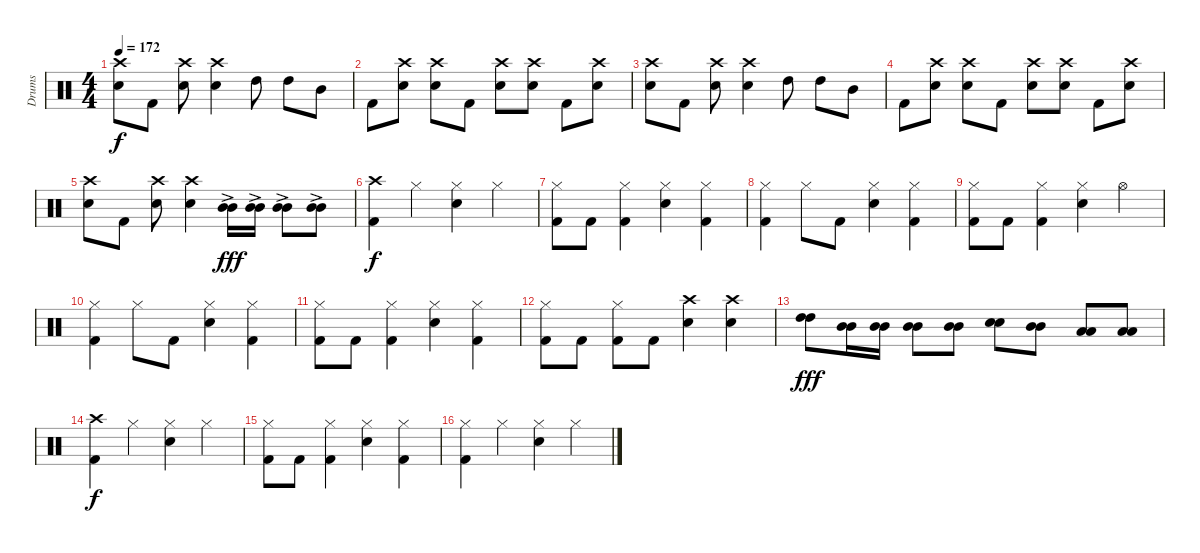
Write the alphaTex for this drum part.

\track ("Drums" "Drums") {instrument percussion}
\staff {score}
\articulation defaults
\ts (4 4)
\tempo 172
\clef neutral
\ks c
("Crash high (hit)" "Snare (hit) 2").8{dy f} "Kick (hit) 2".8 ("Crash high (hit)" "Snare (hit) 2").8 ("Crash high (hit)" "Snare (hit) 2").4 "High Tom (hit)".8 "High Tom (hit)".8 "Mid Tom (hit)".8 |
"Kick (hit) 2".8 ("Crash high (hit)" "Snare (hit) 2").8 ("Crash high (hit)" "Snare (hit) 2").8 "Kick (hit) 2".8 ("Crash high (hit)" "Snare (hit) 2").8 ("Crash high (hit)" "Snare (hit) 2").8 "Kick (hit) 2".8 ("Crash high (hit)" "Snare (hit) 2").8 |
("Crash high (hit)" "Snare (hit) 2").8 "Kick (hit) 2".8 ("Crash high (hit)" "Snare (hit) 2").8 ("Crash high (hit)" "Snare (hit) 2").4 "High Tom (hit)".8 "High Tom (hit)".8 "Mid Tom (hit)".8 |
"Kick (hit) 2".8 ("Crash high (hit)" "Snare (hit) 2").8 ("Crash high (hit)" "Snare (hit) 2").8 "Kick (hit) 2".8 ("Crash high (hit)" "Snare (hit) 2").8 ("Crash high (hit)" "Snare (hit) 2").8 "Kick (hit) 2".8 ("Crash high (hit)" "Snare (hit) 2").8 |
("Crash high (hit)" "Snare (hit) 2").8 "Kick (hit) 2".8 ("Crash high (hit)" "Snare (hit) 2").8 ("Crash high (hit)" "Snare (hit) 2").4 ("Mid Tom (hit)"{ac} "Mid Tom (hit)"{ac}).16{dy fff} ("Mid Tom (hit)"{ac} "Mid Tom (hit)"{ac}).16 ("Mid Tom (hit)"{ac} "Mid Tom (hit)"{ac}).8 ("Mid Tom (hit)"{ac} "Mid Tom (hit)"{ac}).8 |
("Crash high (hit)" "Kick (hit) 2").4{dy f} "Hi-Hat (closed)".4 ("Hi-Hat (closed)" "Snare (hit) 2").4 "Hi-Hat (closed)".4 |
("Hi-Hat (closed)" "Kick (hit) 2").8 "Kick (hit) 2".8 ("Hi-Hat (closed)" "Kick (hit) 2").4 ("Hi-Hat (closed)" "Snare (hit) 2").4 ("Hi-Hat (closed)" "Kick (hit) 2").4 |
("Hi-Hat (closed)" "Kick (hit) 2").4 "Hi-Hat (closed)".8 "Kick (hit) 2".8 ("Hi-Hat (closed)" "Snare (hit) 2").4 ("Hi-Hat (closed)" "Kick (hit) 2").4 |
("Hi-Hat (closed)" "Kick (hit) 2").8 "Kick (hit) 2".8 ("Hi-Hat (closed)" "Kick (hit) 2").4 ("Hi-Hat (closed)" "Snare (hit) 2").4 "Hi-Hat (open)".4 |
("Hi-Hat (closed)" "Kick (hit) 2").4 "Hi-Hat (closed)".8 "Kick (hit) 2".8 ("Hi-Hat (closed)" "Snare (hit) 2").4 ("Hi-Hat (closed)" "Kick (hit) 2").4 |
("Hi-Hat (closed)" "Kick (hit) 2").8 "Kick (hit) 2".8 ("Hi-Hat (closed)" "Kick (hit) 2").4 ("Hi-Hat (closed)" "Snare (hit) 2").4 ("Hi-Hat (closed)" "Kick (hit) 2").4 |
("Hi-Hat (closed)" "Kick (hit) 2").8 "Kick (hit) 2".8 ("Hi-Hat (closed)" "Kick (hit) 2").8 "Kick (hit) 2".8 ("Crash high (hit)" "Snare (hit) 2").4 ("Crash high (hit)" "Snare (hit) 2").4 |
("High Tom (hit)" "High Tom (hit)").8{dy fff} ("Mid Tom (hit)" "Mid Tom (hit)").16 ("Mid Tom (hit)" "Mid Tom (hit)").16 ("Mid Tom (hit)" "Mid Tom (hit)").8 ("Mid Tom (hit)" "Mid Tom (hit)").8 ("Snare (hit) 2" "Snare (hit) 2").8 ("Mid Tom (hit)" "Mid Tom (hit)").8 ("Low Tom (hit)" "Low Tom (hit)").8 ("Low Tom (hit)" "Low Tom (hit)").8 |
("Crash high (hit)" "Kick (hit) 2").4{dy f} "Hi-Hat (closed)".4 ("Hi-Hat (closed)" "Snare (hit) 2").4 "Hi-Hat (closed)".4 |
("Hi-Hat (closed)" "Kick (hit) 2").8 "Kick (hit) 2".8 ("Hi-Hat (closed)" "Kick (hit) 2").4 ("Hi-Hat (closed)" "Snare (hit) 2").4 ("Hi-Hat (closed)" "Kick (hit) 2").4 |
("Hi-Hat (closed)" "Kick (hit) 2").4 "Hi-Hat (closed)".4 ("Hi-Hat (closed)" "Snare (hit) 2").4 "Hi-Hat (closed)".4
